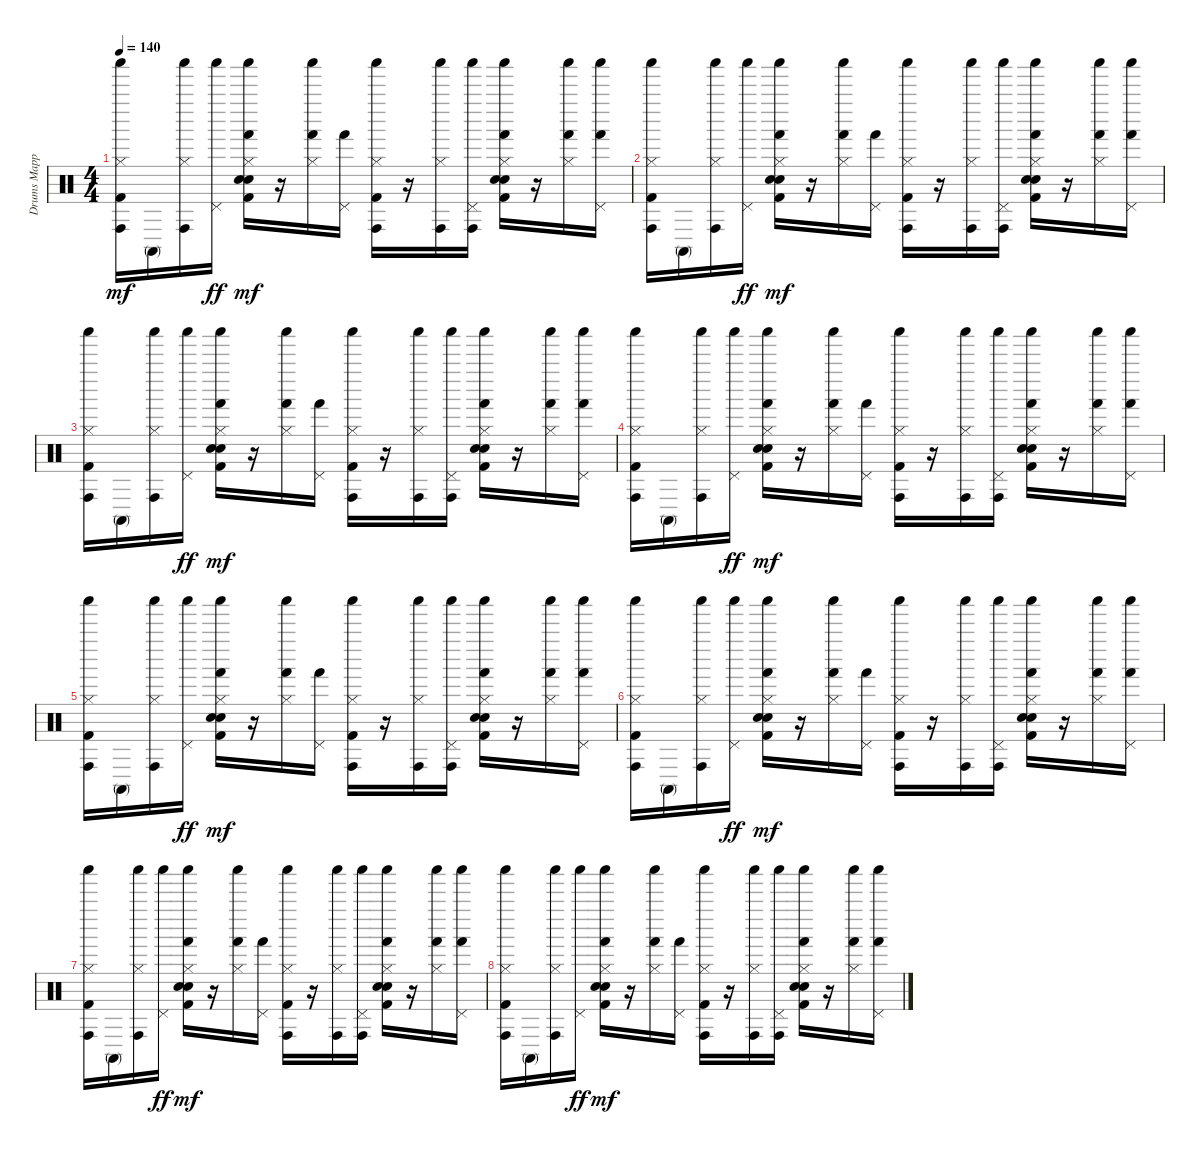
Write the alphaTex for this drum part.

\track ("Drums Mapped" "Drums Mapp") {instrument percussion}
\staff {score}
\articulation defaults
\ts (4 4)
\tempo 140
\clef neutral
\ks c
("Kick (hit) 2" "Hi-Hat (closed)" "Conga high (hit)" "Shaker (hit)").16{dy mf} "Conga high (mute)".16 ("Hi-Hat (closed)" "Conga high (hit)" "Shaker (hit)").16 ("Pedal Hi-Hat (hit)" "Shaker (hit)").16{dy ff} ("Kick (hit) 2" "Hand Clap (hit)" "Electric Snare (hit)" "Hi-Hat (closed)" "Hand (hit)" "Shaker (hit)").16{dy mf} r.16 ("Hi-Hat (closed)" "Hand (hit)" "Shaker (hit)").16 ("Pedal Hi-Hat (hit)" "Hand (hit)").16 ("Kick (hit) 2" "Hi-Hat (closed)" "Conga high (hit)" "Shaker (hit)").16 r.16 ("Hi-Hat (closed)" "Conga high (hit)" "Shaker (hit)").16 ("Pedal Hi-Hat (hit)" "Conga high (hit)" "Shaker (hit)").16 ("Kick (hit) 2" "Hand Clap (hit)" "Electric Snare (hit)" "Hi-Hat (closed)" "Hand (hit)" "Shaker (hit)").16 r.16 ("Hi-Hat (closed)" "Hand (hit)" "Shaker (hit)").16 ("Pedal Hi-Hat (hit)" "Hand (hit)" "Shaker (hit)").16 |
("Kick (hit) 2" "Hi-Hat (closed)" "Conga high (hit)" "Shaker (hit)").16 "Conga high (mute)".16 ("Hi-Hat (closed)" "Conga high (hit)" "Shaker (hit)").16 ("Pedal Hi-Hat (hit)" "Shaker (hit)").16{dy ff} ("Kick (hit) 2" "Hand Clap (hit)" "Electric Snare (hit)" "Hi-Hat (closed)" "Hand (hit)" "Shaker (hit)").16{dy mf} r.16 ("Hi-Hat (closed)" "Hand (hit)" "Shaker (hit)").16 ("Pedal Hi-Hat (hit)" "Hand (hit)").16 ("Kick (hit) 2" "Hi-Hat (closed)" "Conga high (hit)" "Shaker (hit)").16 r.16 ("Hi-Hat (closed)" "Conga high (hit)" "Shaker (hit)").16 ("Pedal Hi-Hat (hit)" "Conga high (hit)" "Shaker (hit)").16 ("Kick (hit) 2" "Hand Clap (hit)" "Electric Snare (hit)" "Hi-Hat (closed)" "Hand (hit)" "Shaker (hit)").16 r.16 ("Hi-Hat (closed)" "Hand (hit)" "Shaker (hit)").16 ("Pedal Hi-Hat (hit)" "Hand (hit)" "Shaker (hit)").16 |
("Kick (hit) 2" "Hi-Hat (closed)" "Conga high (hit)" "Shaker (hit)").16 "Conga high (mute)".16 ("Hi-Hat (closed)" "Conga high (hit)" "Shaker (hit)").16 ("Pedal Hi-Hat (hit)" "Shaker (hit)").16{dy ff} ("Kick (hit) 2" "Hand Clap (hit)" "Electric Snare (hit)" "Hi-Hat (closed)" "Hand (hit)" "Shaker (hit)").16{dy mf} r.16 ("Hi-Hat (closed)" "Hand (hit)" "Shaker (hit)").16 ("Pedal Hi-Hat (hit)" "Hand (hit)").16 ("Kick (hit) 2" "Hi-Hat (closed)" "Conga high (hit)" "Shaker (hit)").16 r.16 ("Hi-Hat (closed)" "Conga high (hit)" "Shaker (hit)").16 ("Pedal Hi-Hat (hit)" "Conga high (hit)" "Shaker (hit)").16 ("Kick (hit) 2" "Hand Clap (hit)" "Electric Snare (hit)" "Hi-Hat (closed)" "Hand (hit)" "Shaker (hit)").16 r.16 ("Hi-Hat (closed)" "Hand (hit)" "Shaker (hit)").16 ("Pedal Hi-Hat (hit)" "Hand (hit)" "Shaker (hit)").16 |
("Kick (hit) 2" "Hi-Hat (closed)" "Conga high (hit)" "Shaker (hit)").16 "Conga high (mute)".16 ("Hi-Hat (closed)" "Conga high (hit)" "Shaker (hit)").16 ("Pedal Hi-Hat (hit)" "Shaker (hit)").16{dy ff} ("Kick (hit) 2" "Hand Clap (hit)" "Electric Snare (hit)" "Hi-Hat (closed)" "Hand (hit)" "Shaker (hit)").16{dy mf} r.16 ("Hi-Hat (closed)" "Hand (hit)" "Shaker (hit)").16 ("Pedal Hi-Hat (hit)" "Hand (hit)").16 ("Kick (hit) 2" "Hi-Hat (closed)" "Conga high (hit)" "Shaker (hit)").16 r.16 ("Hi-Hat (closed)" "Conga high (hit)" "Shaker (hit)").16 ("Pedal Hi-Hat (hit)" "Conga high (hit)" "Shaker (hit)").16 ("Kick (hit) 2" "Hand Clap (hit)" "Electric Snare (hit)" "Hi-Hat (closed)" "Hand (hit)" "Shaker (hit)").16 r.16 ("Hi-Hat (closed)" "Hand (hit)" "Shaker (hit)").16 ("Pedal Hi-Hat (hit)" "Hand (hit)" "Shaker (hit)").16 |
("Kick (hit) 2" "Hi-Hat (closed)" "Conga high (hit)" "Shaker (hit)").16 "Conga high (mute)".16 ("Hi-Hat (closed)" "Conga high (hit)" "Shaker (hit)").16 ("Pedal Hi-Hat (hit)" "Shaker (hit)").16{dy ff} ("Kick (hit) 2" "Hand Clap (hit)" "Electric Snare (hit)" "Hi-Hat (closed)" "Hand (hit)" "Shaker (hit)").16{dy mf} r.16 ("Hi-Hat (closed)" "Hand (hit)" "Shaker (hit)").16 ("Pedal Hi-Hat (hit)" "Hand (hit)").16 ("Kick (hit) 2" "Hi-Hat (closed)" "Conga high (hit)" "Shaker (hit)").16 r.16 ("Hi-Hat (closed)" "Conga high (hit)" "Shaker (hit)").16 ("Pedal Hi-Hat (hit)" "Conga high (hit)" "Shaker (hit)").16 ("Kick (hit) 2" "Hand Clap (hit)" "Electric Snare (hit)" "Hi-Hat (closed)" "Hand (hit)" "Shaker (hit)").16 r.16 ("Hi-Hat (closed)" "Hand (hit)" "Shaker (hit)").16 ("Pedal Hi-Hat (hit)" "Hand (hit)" "Shaker (hit)").16 |
("Kick (hit) 2" "Hi-Hat (closed)" "Conga high (hit)" "Shaker (hit)").16 "Conga high (mute)".16 ("Hi-Hat (closed)" "Conga high (hit)" "Shaker (hit)").16 ("Pedal Hi-Hat (hit)" "Shaker (hit)").16{dy ff} ("Kick (hit) 2" "Hand Clap (hit)" "Electric Snare (hit)" "Hi-Hat (closed)" "Hand (hit)" "Shaker (hit)").16{dy mf} r.16 ("Hi-Hat (closed)" "Hand (hit)" "Shaker (hit)").16 ("Pedal Hi-Hat (hit)" "Hand (hit)").16 ("Kick (hit) 2" "Hi-Hat (closed)" "Conga high (hit)" "Shaker (hit)").16 r.16 ("Hi-Hat (closed)" "Conga high (hit)" "Shaker (hit)").16 ("Pedal Hi-Hat (hit)" "Conga high (hit)" "Shaker (hit)").16 ("Kick (hit) 2" "Hand Clap (hit)" "Electric Snare (hit)" "Hi-Hat (closed)" "Hand (hit)" "Shaker (hit)").16 r.16 ("Hi-Hat (closed)" "Hand (hit)" "Shaker (hit)").16 ("Pedal Hi-Hat (hit)" "Hand (hit)" "Shaker (hit)").16 |
("Kick (hit) 2" "Hi-Hat (closed)" "Conga high (hit)" "Shaker (hit)").16 "Conga high (mute)".16 ("Hi-Hat (closed)" "Conga high (hit)" "Shaker (hit)").16 ("Pedal Hi-Hat (hit)" "Shaker (hit)").16{dy ff} ("Kick (hit) 2" "Hand Clap (hit)" "Electric Snare (hit)" "Hi-Hat (closed)" "Hand (hit)" "Shaker (hit)").16{dy mf} r.16 ("Hi-Hat (closed)" "Hand (hit)" "Shaker (hit)").16 ("Pedal Hi-Hat (hit)" "Hand (hit)").16 ("Kick (hit) 2" "Hi-Hat (closed)" "Conga high (hit)" "Shaker (hit)").16 r.16 ("Hi-Hat (closed)" "Conga high (hit)" "Shaker (hit)").16 ("Pedal Hi-Hat (hit)" "Conga high (hit)" "Shaker (hit)").16 ("Kick (hit) 2" "Hand Clap (hit)" "Electric Snare (hit)" "Hi-Hat (closed)" "Hand (hit)" "Shaker (hit)").16 r.16 ("Hi-Hat (closed)" "Hand (hit)" "Shaker (hit)").16 ("Pedal Hi-Hat (hit)" "Hand (hit)" "Shaker (hit)").16 |
("Kick (hit) 2" "Hi-Hat (closed)" "Conga high (hit)" "Shaker (hit)").16 "Conga high (mute)".16 ("Hi-Hat (closed)" "Conga high (hit)" "Shaker (hit)").16 ("Pedal Hi-Hat (hit)" "Shaker (hit)").16{dy ff} ("Kick (hit) 2" "Hand Clap (hit)" "Electric Snare (hit)" "Hi-Hat (closed)" "Hand (hit)" "Shaker (hit)").16{dy mf} r.16 ("Hi-Hat (closed)" "Hand (hit)" "Shaker (hit)").16 ("Pedal Hi-Hat (hit)" "Hand (hit)").16 ("Kick (hit) 2" "Hi-Hat (closed)" "Conga high (hit)" "Shaker (hit)").16 r.16 ("Hi-Hat (closed)" "Conga high (hit)" "Shaker (hit)").16 ("Pedal Hi-Hat (hit)" "Conga high (hit)" "Shaker (hit)").16 ("Kick (hit) 2" "Hand Clap (hit)" "Electric Snare (hit)" "Hi-Hat (closed)" "Hand (hit)" "Shaker (hit)").16 r.16 ("Hi-Hat (closed)" "Hand (hit)" "Shaker (hit)").16 ("Pedal Hi-Hat (hit)" "Hand (hit)" "Shaker (hit)").16
